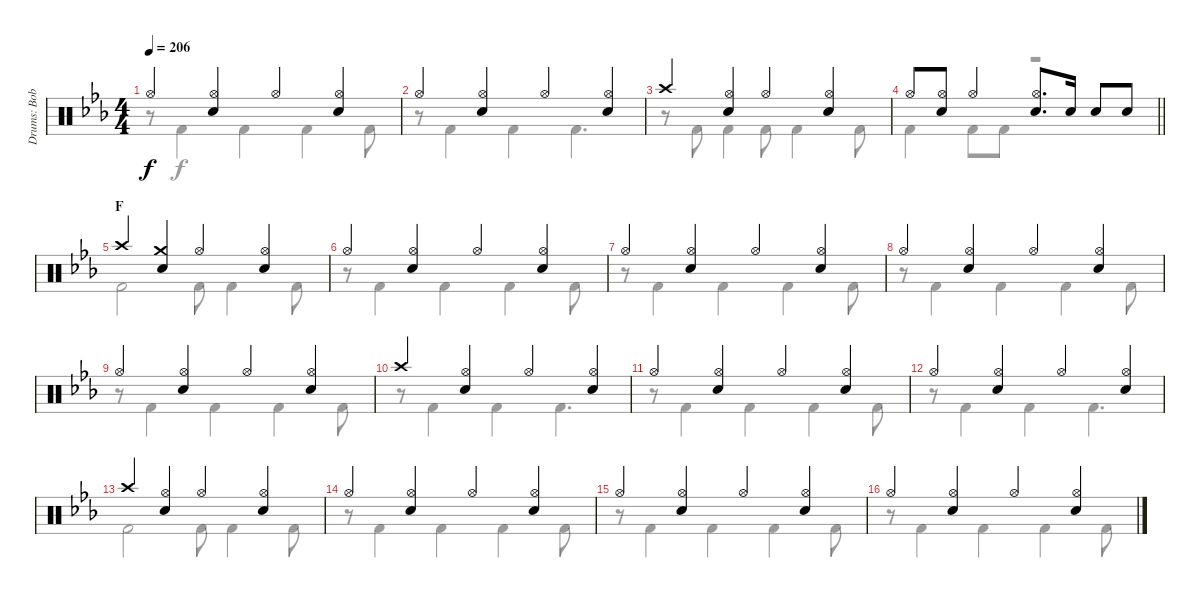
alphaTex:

\track ("Drums: Bobby" "Drums: Bob") {instrument percussion}
\staff {score}
\articulation defaults
\voice
\ts (4 4)
\tempo 206
\clef neutral
\ks eb "Hi-Hat (open)".4{dy f}
("Hi-Hat (open)" "Snare (hit) 2").4 "Hi-Hat (open)".4 ("Hi-Hat (open)" "Snare (hit) 2").4 |
"Hi-Hat (open)".4 ("Hi-Hat (open)" "Snare (hit) 2").4 "Hi-Hat (open)".4 ("Hi-Hat (open)" "Snare (hit) 2").4 |
"Crash high (hit)".4 ("Hi-Hat (open)" "Snare (hit) 2").4 "Hi-Hat (open)".4 ("Hi-Hat (open)" "Snare (hit) 2").4 |
\barLineRight lightlight "Hi-Hat (open)".8
("Hi-Hat (open)" "Snare (hit) 2").8 "Hi-Hat (open)".4 ("Hi-Hat (open)" "Snare (hit) 2").8{d} "Electric Snare (hit)".16 "Snare (hit) 2".8 "Snare (hit) 2".8 |
\section ("" "F")
"Crash high (hit)".4 ("Crash medium (hit)" "Snare (hit) 2").4 "Hi-Hat (open)".4 ("Hi-Hat (open)" "Snare (hit) 2").4 |
"Hi-Hat (open)".4 ("Hi-Hat (open)" "Snare (hit) 2").4 "Hi-Hat (open)".4 ("Hi-Hat (open)" "Snare (hit) 2").4 |
"Hi-Hat (open)".4 ("Hi-Hat (open)" "Snare (hit) 2").4 "Hi-Hat (open)".4 ("Hi-Hat (open)" "Snare (hit) 2").4 |
"Hi-Hat (open)".4 ("Hi-Hat (open)" "Snare (hit) 2").4 "Hi-Hat (open)".4 ("Hi-Hat (open)" "Snare (hit) 2").4 |
"Hi-Hat (open)".4 ("Hi-Hat (open)" "Snare (hit) 2").4 "Hi-Hat (open)".4 ("Hi-Hat (open)" "Snare (hit) 2").4 |
"Crash high (hit)".4 ("Hi-Hat (open)" "Snare (hit) 2").4 "Hi-Hat (open)".4 ("Hi-Hat (open)" "Snare (hit) 2").4 |
"Hi-Hat (open)".4 ("Hi-Hat (open)" "Snare (hit) 2").4 "Hi-Hat (open)".4 ("Hi-Hat (open)" "Snare (hit) 2").4 |
"Hi-Hat (open)".4 ("Hi-Hat (open)" "Snare (hit) 2").4 "Hi-Hat (open)".4 ("Hi-Hat (open)" "Snare (hit) 2").4 |
"Crash high (hit)".4 ("Hi-Hat (open)" "Snare (hit) 2").4 "Hi-Hat (open)".4 ("Hi-Hat (open)" "Snare (hit) 2").4 |
"Hi-Hat (open)".4 ("Hi-Hat (open)" "Snare (hit) 2").4 "Hi-Hat (open)".4 ("Hi-Hat (open)" "Snare (hit) 2").4 |
"Hi-Hat (open)".4 ("Hi-Hat (open)" "Snare (hit) 2").4 "Hi-Hat (open)".4 ("Hi-Hat (open)" "Snare (hit) 2").4 |
"Hi-Hat (open)".4 ("Hi-Hat (open)" "Snare (hit) 2").4 "Hi-Hat (open)".4 ("Hi-Hat (open)" "Snare (hit) 2").4
\voice
\clef neutral
\ottava regular
\simile none
\ks eb
r.8{dy f} "Kick (hit) 2".4 "Kick (hit) 2".4 "Kick (hit) 2".4 "Kick (hit) 2".8 |
r.8 "Kick (hit) 2".4 "Kick (hit) 2".4 "Kick (hit) 2".4{d} |
r.8 "Kick (hit) 2".8 "Kick (hit) 2".4 "Kick (hit) 2".8 "Kick (hit) 2".4 "Kick (hit) 2".8 |
\barLineRight lightlight "Kick (hit) 2".4 "Kick (hit) 2".8 "Kick (hit) 2".8
r.2 |
"Kick (hit) 2".2 "Kick (hit) 2".8 "Kick (hit) 2".4 "Kick (hit) 2".8 |
r.8 "Kick (hit) 2".4 "Kick (hit) 2".4 "Kick (hit) 2".4 "Kick (hit) 2".8 |
r.8 "Kick (hit) 2".4 "Kick (hit) 2".4 "Kick (hit) 2".4 "Kick (hit) 2".8 |
r.8 "Kick (hit) 2".4 "Kick (hit) 2".4 "Kick (hit) 2".4 "Kick (hit) 2".8 |
r.8 "Kick (hit) 2".4 "Kick (hit) 2".4 "Kick (hit) 2".4 "Kick (hit) 2".8 |
r.8 "Kick (hit) 2".4 "Kick (hit) 2".4 "Kick (hit) 2".4{d} |
r.8 "Kick (hit) 2".4 "Kick (hit) 2".4 "Kick (hit) 2".4 "Kick (hit) 2".8 |
r.8 "Kick (hit) 2".4 "Kick (hit) 2".4 "Kick (hit) 2".4{d} |
"Kick (hit) 2".2 "Kick (hit) 2".8 "Kick (hit) 2".4 "Kick (hit) 2".8 |
r.8 "Kick (hit) 2".4 "Kick (hit) 2".4 "Kick (hit) 2".4 "Kick (hit) 2".8 |
r.8 "Kick (hit) 2".4 "Kick (hit) 2".4 "Kick (hit) 2".4 "Kick (hit) 2".8 |
r.8 "Kick (hit) 2".4 "Kick (hit) 2".4 "Kick (hit) 2".4 "Kick (hit) 2".8
